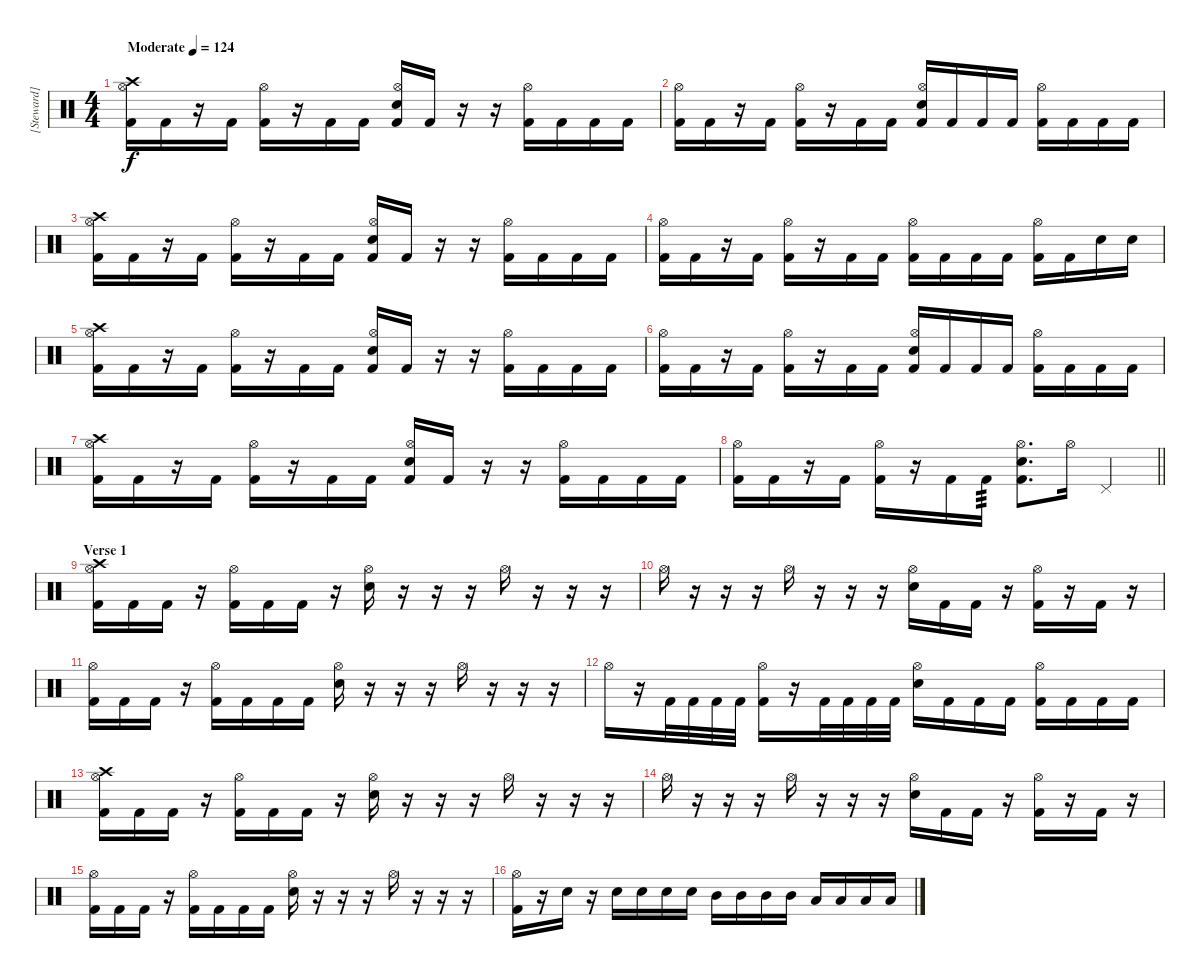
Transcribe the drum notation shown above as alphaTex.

\track ("[Steward]" "[Steward]") {solo instrument percussion}
\staff {score}
\articulation defaults
\ts (4 4)
\section ("" "")
\tempo (124 "Moderate")
\clef neutral
\ks c
("Crash high (hit)" "Kick (hit) 2" "Hi-Hat (open)").16{dy f} "Kick (hit) 2".16 r.16 "Kick (hit) 2".16 ("Kick (hit) 2" "Hi-Hat (open)").16 r.16 "Kick (hit) 2".16 "Kick (hit) 2".16 ("Electric Snare (hit)" "Kick (hit) 2" "Hi-Hat (open)").16 "Kick (hit) 2".16 r.16 r.16 ("Kick (hit) 2" "Hi-Hat (open)").16 "Kick (hit) 2".16 "Kick (hit) 2".16 "Kick (hit) 2".16 |
("Kick (hit) 2" "Hi-Hat (open)").16 "Kick (hit) 2".16 r.16 "Kick (hit) 2".16 ("Kick (hit) 2" "Hi-Hat (open)").16 r.16 "Kick (hit) 2".16 "Kick (hit) 2".16 ("Electric Snare (hit)" "Kick (hit) 2" "Hi-Hat (open)").16 "Kick (hit) 2".16 "Kick (hit) 2".16 "Kick (hit) 2".16 ("Kick (hit) 2" "Hi-Hat (open)").16 "Kick (hit) 2".16 "Kick (hit) 2".16 "Kick (hit) 2".16 |
("Crash high (hit)" "Kick (hit) 2" "Hi-Hat (open)").16 "Kick (hit) 2".16 r.16 "Kick (hit) 2".16 ("Kick (hit) 2" "Hi-Hat (open)").16 r.16 "Kick (hit) 2".16 "Kick (hit) 2".16 ("Electric Snare (hit)" "Kick (hit) 2" "Hi-Hat (open)").16 "Kick (hit) 2".16 r.16 r.16 ("Kick (hit) 2" "Hi-Hat (open)").16 "Kick (hit) 2".16 "Kick (hit) 2".16 "Kick (hit) 2".16 |
("Kick (hit) 2" "Hi-Hat (open)").16 "Kick (hit) 2".16 r.16 "Kick (hit) 2".16 ("Kick (hit) 2" "Hi-Hat (open)").16 r.16 "Kick (hit) 2".16 "Kick (hit) 2".16 ("Kick (hit) 2" "Hi-Hat (open)").16 "Kick (hit) 2".16 "Kick (hit) 2".16 "Kick (hit) 2".16 ("Kick (hit) 2" "Hi-Hat (open)").16 "Kick (hit) 2".16 "Electric Snare (hit)".16 "Electric Snare (hit)".16 |
("Crash high (hit)" "Kick (hit) 2" "Hi-Hat (open)").16 "Kick (hit) 2".16 r.16 "Kick (hit) 2".16 ("Kick (hit) 2" "Hi-Hat (open)").16 r.16 "Kick (hit) 2".16 "Kick (hit) 2".16 ("Electric Snare (hit)" "Kick (hit) 2" "Hi-Hat (open)").16 "Kick (hit) 2".16 r.16 r.16 ("Kick (hit) 2" "Hi-Hat (open)").16 "Kick (hit) 2".16 "Kick (hit) 2".16 "Kick (hit) 2".16 |
("Kick (hit) 2" "Hi-Hat (open)").16 "Kick (hit) 2".16 r.16 "Kick (hit) 2".16 ("Kick (hit) 2" "Hi-Hat (open)").16 r.16 "Kick (hit) 2".16 "Kick (hit) 2".16 ("Electric Snare (hit)" "Kick (hit) 2" "Hi-Hat (open)").16 "Kick (hit) 2".16 "Kick (hit) 2".16 "Kick (hit) 2".16 ("Kick (hit) 2" "Hi-Hat (open)").16 "Kick (hit) 2".16 "Kick (hit) 2".16 "Kick (hit) 2".16 |
("Crash high (hit)" "Kick (hit) 2" "Hi-Hat (open)").16 "Kick (hit) 2".16 r.16 "Kick (hit) 2".16 ("Kick (hit) 2" "Hi-Hat (open)").16 r.16 "Kick (hit) 2".16 "Kick (hit) 2".16 ("Electric Snare (hit)" "Kick (hit) 2" "Hi-Hat (open)").16 "Kick (hit) 2".16 r.16 r.16 ("Kick (hit) 2" "Hi-Hat (open)").16 "Kick (hit) 2".16 "Kick (hit) 2".16 "Kick (hit) 2".16 |
\barLineRight lightlight
("Kick (hit) 2" "Hi-Hat (open)").16 "Kick (hit) 2".16 r.16 "Kick (hit) 2".16 ("Kick (hit) 2" "Hi-Hat (open)").16 r.16 "Kick (hit) 2".16 "Kick (hit) 2".16{tp 3} ("Electric Snare (hit)" "Kick (hit) 2" "Hi-Hat (open)").8{d} "Hi-Hat (open)".16 "Pedal Hi-Hat (hit)".4 |
\section ("" "Verse 1")
("Crash high (hit)" "Kick (hit) 2" "Hi-Hat (open)").16 "Kick (hit) 2".16 "Kick (hit) 2".16 r.16 ("Kick (hit) 2" "Hi-Hat (open)").16 "Kick (hit) 2".16 "Kick (hit) 2".16 r.16 ("Electric Snare (hit)" "Hi-Hat (open)").16 r.16 r.16 r.16 "Hi-Hat (open)".16 r.16 r.16 r.16 |
"Hi-Hat (open)".16 r.16 r.16 r.16 "Hi-Hat (open)".16 r.16 r.16 r.16 ("Electric Snare (hit)" "Hi-Hat (open)").16 "Kick (hit) 2".16 "Kick (hit) 2".16 r.16 ("Kick (hit) 2" "Hi-Hat (open)").16 r.16 "Kick (hit) 2".16 r.16 |
("Kick (hit) 2" "Hi-Hat (open)").16 "Kick (hit) 2".16 "Kick (hit) 2".16 r.16 ("Kick (hit) 2" "Hi-Hat (open)").16 "Kick (hit) 2".16 "Kick (hit) 2".16 "Kick (hit) 2".16 ("Electric Snare (hit)" "Hi-Hat (open)").16 r.16 r.16 r.16 "Hi-Hat (open)".16 r.16 r.16 r.16 |
"Hi-Hat (open)".16 r.16 "Kick (hit) 2".32 "Kick (hit) 2".32 "Kick (hit) 2".32 "Kick (hit) 2".32 ("Kick (hit) 2" "Hi-Hat (open)").16 r.16 "Kick (hit) 2".32 "Kick (hit) 2".32 "Kick (hit) 2".32 "Kick (hit) 2".32 ("Electric Snare (hit)" "Hi-Hat (open)").16 "Kick (hit) 2".16 "Kick (hit) 2".16 "Kick (hit) 2".16 ("Kick (hit) 2" "Hi-Hat (open)").16 "Kick (hit) 2".16 "Kick (hit) 2".16 "Kick (hit) 2".16 |
("Crash high (hit)" "Kick (hit) 2" "Hi-Hat (open)").16 "Kick (hit) 2".16 "Kick (hit) 2".16 r.16 ("Kick (hit) 2" "Hi-Hat (open)").16 "Kick (hit) 2".16 "Kick (hit) 2".16 r.16 ("Electric Snare (hit)" "Hi-Hat (open)").16 r.16 r.16 r.16 "Hi-Hat (open)".16 r.16 r.16 r.16 |
"Hi-Hat (open)".16 r.16 r.16 r.16 "Hi-Hat (open)".16 r.16 r.16 r.16 ("Electric Snare (hit)" "Hi-Hat (open)").16 "Kick (hit) 2".16 "Kick (hit) 2".16 r.16 ("Kick (hit) 2" "Hi-Hat (open)").16 r.16 "Kick (hit) 2".16 r.16 |
("Kick (hit) 2" "Hi-Hat (open)").16 "Kick (hit) 2".16 "Kick (hit) 2".16 r.16 ("Kick (hit) 2" "Hi-Hat (open)").16 "Kick (hit) 2".16 "Kick (hit) 2".16 "Kick (hit) 2".16 ("Electric Snare (hit)" "Hi-Hat (open)").16 r.16 r.16 r.16 "Hi-Hat (open)".16 r.16 r.16 r.16 |
("Kick (hit) 2" "Hi-Hat (open)").16 r.16 "Electric Snare (hit)".16 r.16 "Electric Snare (hit)".16 "Electric Snare (hit)".16 "Electric Snare (hit)".16 "Electric Snare (hit)".16 "Mid Tom (hit)".16 "Mid Tom (hit)".16 "Mid Tom (hit)".16 "Mid Tom (hit)".16 "Low Tom (hit)".16 "Low Tom (hit)".16 "Low Tom (hit)".16 "Low Tom (hit)".16
